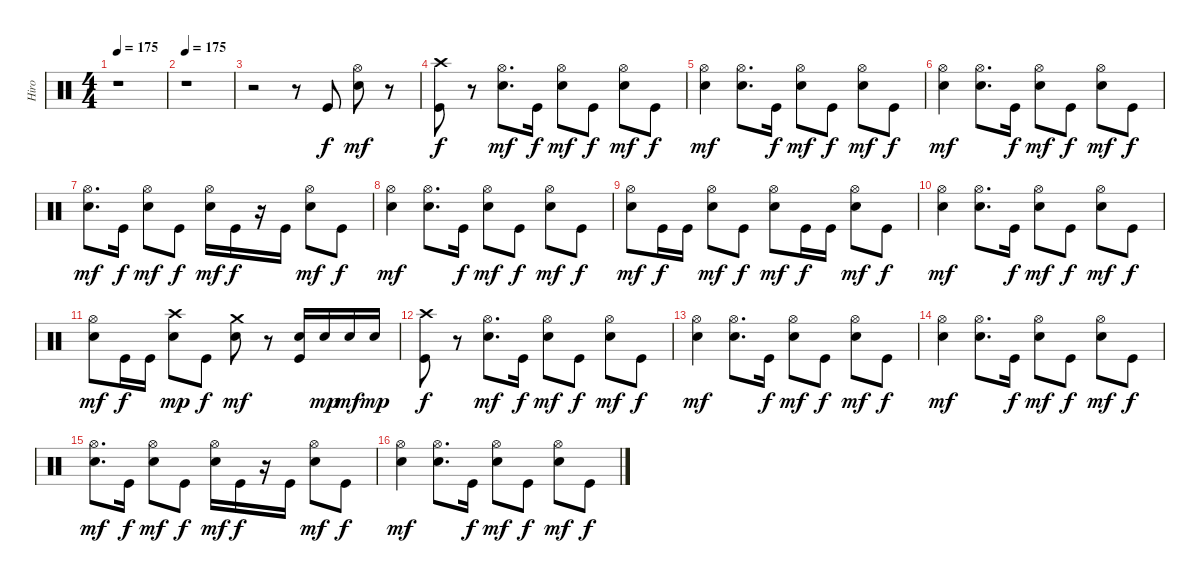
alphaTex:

\track ("Hiro" "Hiro") {instrument percussion}
\staff {score}
\articulation defaults
\ts (4 4)
\tempo 175
\clef neutral
\ks c
r.1{dy f} |
\tempo 175
r.1 |
r.2 r.8 "Kick (hit)".8 ("Electric Snare (hit)" "Hi-Hat (open)").8{dy mf} r.8 |
("Crash high (hit)" "Kick (hit)").8{dy f} r.8 ("Electric Snare (hit)" "Hi-Hat (open)").8{d dy mf} "Kick (hit)".16{dy f} ("Electric Snare (hit)" "Hi-Hat (open)").8{dy mf} "Kick (hit)".8{dy f} ("Electric Snare (hit)" "Hi-Hat (open)").8{dy mf} "Kick (hit)".8{dy f} |
("Electric Snare (hit)" "Hi-Hat (open)").4{dy mf} ("Electric Snare (hit)" "Hi-Hat (open)").8{d} "Kick (hit)".16{dy f} ("Electric Snare (hit)" "Hi-Hat (open)").8{dy mf} "Kick (hit)".8{dy f} ("Electric Snare (hit)" "Hi-Hat (open)").8{dy mf} "Kick (hit)".8{dy f} |
("Electric Snare (hit)" "Hi-Hat (open)").4{dy mf} ("Electric Snare (hit)" "Hi-Hat (open)").8{d} "Kick (hit)".16{dy f} ("Electric Snare (hit)" "Hi-Hat (open)").8{dy mf} "Kick (hit)".8{dy f} ("Electric Snare (hit)" "Hi-Hat (open)").8{dy mf} "Kick (hit)".8{dy f} |
("Electric Snare (hit)" "Hi-Hat (open)").8{d dy mf} "Kick (hit)".16{dy f} ("Electric Snare (hit)" "Hi-Hat (open)").8{dy mf} "Kick (hit)".8{dy f} ("Electric Snare (hit)" "Hi-Hat (open)").16{dy mf} "Kick (hit)".16{dy f} r.16 "Kick (hit)".16 ("Electric Snare (hit)" "Hi-Hat (open)").8{dy mf} "Kick (hit)".8{dy f} |
("Electric Snare (hit)" "Hi-Hat (open)").4{dy mf} ("Electric Snare (hit)" "Hi-Hat (open)").8{d} "Kick (hit)".16{dy f} ("Electric Snare (hit)" "Hi-Hat (open)").8{dy mf} "Kick (hit)".8{dy f} ("Electric Snare (hit)" "Hi-Hat (open)").8{dy mf} "Kick (hit)".8{dy f} |
("Electric Snare (hit)" "Hi-Hat (open)").8{dy mf} "Kick (hit)".16{dy f} "Kick (hit)".16 ("Electric Snare (hit)" "Hi-Hat (open)").8{dy mf} "Kick (hit)".8{dy f} ("Electric Snare (hit)" "Hi-Hat (open)").8{dy mf} "Kick (hit)".16{dy f} "Kick (hit)".16 ("Electric Snare (hit)" "Hi-Hat (open)").8{dy mf} "Kick (hit)".8{dy f} |
("Electric Snare (hit)" "Hi-Hat (open)").4{dy mf} ("Electric Snare (hit)" "Hi-Hat (open)").8{d} "Kick (hit)".16{dy f} ("Electric Snare (hit)" "Hi-Hat (open)").8{dy mf} "Kick (hit)".8{dy f} ("Electric Snare (hit)" "Hi-Hat (open)").8{dy mf} "Kick (hit)".8{dy f} |
("Electric Snare (hit)" "Hi-Hat (open)").8{dy mf} "Kick (hit)".16{dy f} "Kick (hit)".16 ("Crash high (hit)" "Electric Snare (hit)").8{dy mp} "Kick (hit)".8{dy f} ("Crash medium (hit)" "Electric Snare (hit)").8{dy mf} r.8 ("Electric Snare (hit)" "Kick (hit)").16 "Electric Snare (hit)".16{dy mp} "Electric Snare (hit)".16{dy mf} "Electric Snare (hit)".16{dy mp} |
("Crash high (hit)" "Kick (hit)").8{dy f} r.8 ("Electric Snare (hit)" "Hi-Hat (open)").8{d dy mf} "Kick (hit)".16{dy f} ("Electric Snare (hit)" "Hi-Hat (open)").8{dy mf} "Kick (hit)".8{dy f} ("Electric Snare (hit)" "Hi-Hat (open)").8{dy mf} "Kick (hit)".8{dy f} |
("Electric Snare (hit)" "Hi-Hat (open)").4{dy mf} ("Electric Snare (hit)" "Hi-Hat (open)").8{d} "Kick (hit)".16{dy f} ("Electric Snare (hit)" "Hi-Hat (open)").8{dy mf} "Kick (hit)".8{dy f} ("Electric Snare (hit)" "Hi-Hat (open)").8{dy mf} "Kick (hit)".8{dy f} |
("Electric Snare (hit)" "Hi-Hat (open)").4{dy mf} ("Electric Snare (hit)" "Hi-Hat (open)").8{d} "Kick (hit)".16{dy f} ("Electric Snare (hit)" "Hi-Hat (open)").8{dy mf} "Kick (hit)".8{dy f} ("Electric Snare (hit)" "Hi-Hat (open)").8{dy mf} "Kick (hit)".8{dy f} |
("Electric Snare (hit)" "Hi-Hat (open)").8{d dy mf} "Kick (hit)".16{dy f} ("Electric Snare (hit)" "Hi-Hat (open)").8{dy mf} "Kick (hit)".8{dy f} ("Electric Snare (hit)" "Hi-Hat (open)").16{dy mf} "Kick (hit)".16{dy f} r.16 "Kick (hit)".16 ("Electric Snare (hit)" "Hi-Hat (open)").8{dy mf} "Kick (hit)".8{dy f} |
("Electric Snare (hit)" "Hi-Hat (open)").4{dy mf} ("Electric Snare (hit)" "Hi-Hat (open)").8{d} "Kick (hit)".16{dy f} ("Electric Snare (hit)" "Hi-Hat (open)").8{dy mf} "Kick (hit)".8{dy f} ("Electric Snare (hit)" "Hi-Hat (open)").8{dy mf} "Kick (hit)".8{dy f}
